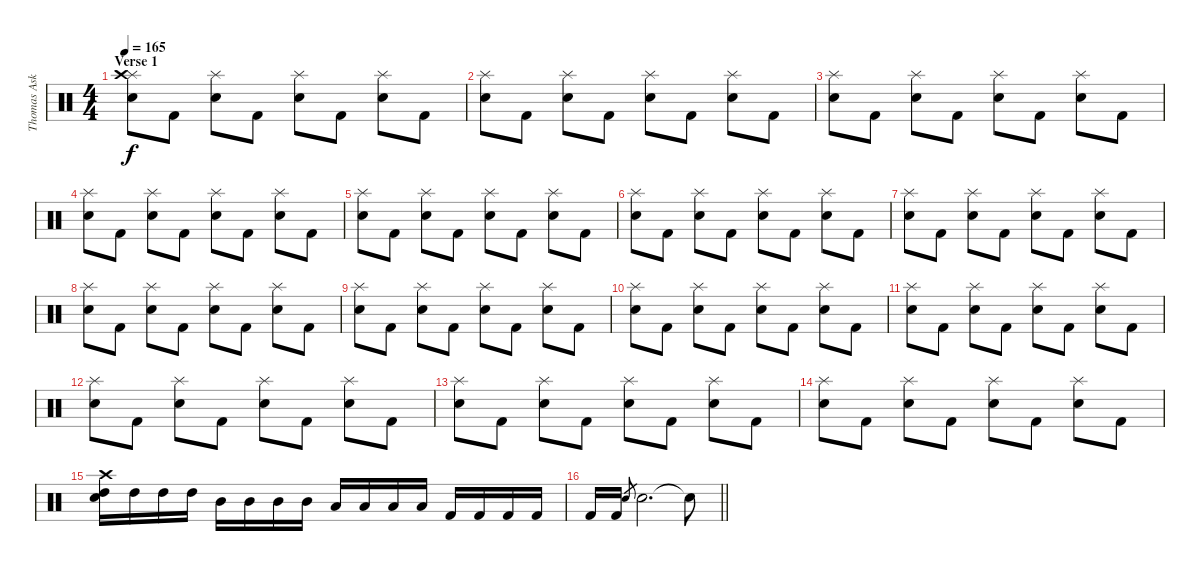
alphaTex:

\track ("Thomas Asklund" "Thomas Ask") {instrument percussion}
\staff {score}
\articulation defaults
\ts (4 4)
\section ("" "Verse 1")
\tempo 165
\clef neutral
\ks c
("Splash (hit)" "Crash high (hit)" "Snare (hit) 2").8{dy f} "Kick (hit) 2".8 ("Splash (hit)" "Snare (hit) 2").8 "Kick (hit) 2".8 ("Splash (hit)" "Snare (hit) 2").8 "Kick (hit) 2".8 ("Splash (hit)" "Snare (hit) 2").8 "Kick (hit) 2".8 |
("Splash (hit)" "Snare (hit) 2").8 "Kick (hit) 2".8 ("Splash (hit)" "Snare (hit) 2").8 "Kick (hit) 2".8 ("Splash (hit)" "Snare (hit) 2").8 "Kick (hit) 2".8 ("Splash (hit)" "Snare (hit) 2").8 "Kick (hit) 2".8 |
("Splash (hit)" "Snare (hit) 2").8 "Kick (hit) 2".8 ("Splash (hit)" "Snare (hit) 2").8 "Kick (hit) 2".8 ("Splash (hit)" "Snare (hit) 2").8 "Kick (hit) 2".8 ("Splash (hit)" "Snare (hit) 2").8 "Kick (hit) 2".8 |
("Splash (hit)" "Snare (hit) 2").8 "Kick (hit) 2".8 ("Splash (hit)" "Snare (hit) 2").8 "Kick (hit) 2".8 ("Splash (hit)" "Snare (hit) 2").8 "Kick (hit) 2".8 ("Splash (hit)" "Snare (hit) 2").8 "Kick (hit) 2".8 |
("Splash (hit)" "Snare (hit) 2").8 "Kick (hit) 2".8 ("Splash (hit)" "Snare (hit) 2").8 "Kick (hit) 2".8 ("Splash (hit)" "Snare (hit) 2").8 "Kick (hit) 2".8 ("Splash (hit)" "Snare (hit) 2").8 "Kick (hit) 2".8 |
("Splash (hit)" "Snare (hit) 2").8 "Kick (hit) 2".8 ("Splash (hit)" "Snare (hit) 2").8 "Kick (hit) 2".8 ("Splash (hit)" "Snare (hit) 2").8 "Kick (hit) 2".8 ("Splash (hit)" "Snare (hit) 2").8 "Kick (hit) 2".8 |
("Splash (hit)" "Snare (hit) 2").8 "Kick (hit) 2".8 ("Splash (hit)" "Snare (hit) 2").8 "Kick (hit) 2".8 ("Splash (hit)" "Snare (hit) 2").8 "Kick (hit) 2".8 ("Splash (hit)" "Snare (hit) 2").8 "Kick (hit) 2".8 |
("Splash (hit)" "Snare (hit) 2").8 "Kick (hit) 2".8 ("Splash (hit)" "Snare (hit) 2").8 "Kick (hit) 2".8 ("Splash (hit)" "Snare (hit) 2").8 "Kick (hit) 2".8 ("Splash (hit)" "Snare (hit) 2").8 "Kick (hit) 2".8 |
("Splash (hit)" "Snare (hit) 2").8 "Kick (hit) 2".8 ("Splash (hit)" "Snare (hit) 2").8 "Kick (hit) 2".8 ("Splash (hit)" "Snare (hit) 2").8 "Kick (hit) 2".8 ("Splash (hit)" "Snare (hit) 2").8 "Kick (hit) 2".8 |
("Splash (hit)" "Snare (hit) 2").8 "Kick (hit) 2".8 ("Splash (hit)" "Snare (hit) 2").8 "Kick (hit) 2".8 ("Splash (hit)" "Snare (hit) 2").8 "Kick (hit) 2".8 ("Splash (hit)" "Snare (hit) 2").8 "Kick (hit) 2".8 |
("Splash (hit)" "Snare (hit) 2").8 "Kick (hit) 2".8 ("Splash (hit)" "Snare (hit) 2").8 "Kick (hit) 2".8 ("Splash (hit)" "Snare (hit) 2").8 "Kick (hit) 2".8 ("Splash (hit)" "Snare (hit) 2").8 "Kick (hit) 2".8 |
("Splash (hit)" "Snare (hit) 2").8 "Kick (hit) 2".8 ("Splash (hit)" "Snare (hit) 2").8 "Kick (hit) 2".8 ("Splash (hit)" "Snare (hit) 2").8 "Kick (hit) 2".8 ("Splash (hit)" "Snare (hit) 2").8 "Kick (hit) 2".8 |
("Splash (hit)" "Snare (hit) 2").8 "Kick (hit) 2".8 ("Splash (hit)" "Snare (hit) 2").8 "Kick (hit) 2".8 ("Splash (hit)" "Snare (hit) 2").8 "Kick (hit) 2".8 ("Splash (hit)" "Snare (hit) 2").8 "Kick (hit) 2".8 |
("Splash (hit)" "Snare (hit) 2").8 "Kick (hit) 2".8 ("Splash (hit)" "Snare (hit) 2").8 "Kick (hit) 2".8 ("Splash (hit)" "Snare (hit) 2").8 "Kick (hit) 2".8 ("Splash (hit)" "Snare (hit) 2").8 "Kick (hit) 2".8 |
("Snare (hit) 2" "Crash high (hit)" "High Tom (hit)").16 "High Tom (hit)".16 "High Tom (hit)".16 "High Tom (hit)".16 "Mid Tom (hit)".16 "Mid Tom (hit)".16 "Mid Tom (hit)".16 "Mid Tom (hit)".16 "Low Tom (hit)".16 "Low Tom (hit)".16 "Low Tom (hit)".16 "Low Tom (hit)".16 "Kick (hit) 2".16 "Kick (hit) 2".16 "Kick (hit) 2".16 "Kick (hit) 2".16 |
\barLineRight lightlight "Kick (hit) 2".16 "Kick (hit) 2".16 "Electric Snare (hit)".8{gr} "Electric Snare (hit)".2{d} "Snare (hit)"{t}.8
